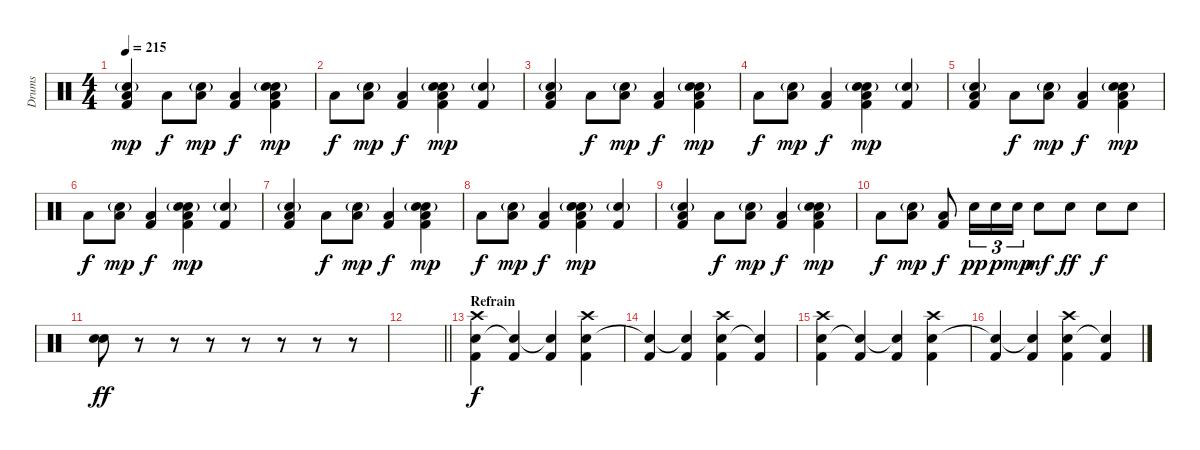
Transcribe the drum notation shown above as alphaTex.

\track ("Drums" "Drums") {instrument percussion}
\staff {score}
\articulation defaults
\ts (4 4)
\tempo 215
\clef neutral
\ks c
("Electric Snare (hit)"{g} "Low Floor Tom (hit)" "Kick (hit) 2").4{dy mp} "Low Floor Tom (hit)".8{dy f} ("Electric Snare (hit)"{g} "Low Floor Tom (hit)").8{dy mp} ("Low Floor Tom (hit)" "Kick (hit) 2").4{dy f} ("Electric Snare (hit)" "Kick (hit) 2" "Low Floor Tom (hit)" "Snare (hit) 2"{g}).4{dy mp} |
"Low Floor Tom (hit)".8{dy f} ("Electric Snare (hit)"{g} "Low Floor Tom (hit)").8{dy mp} ("Low Floor Tom (hit)" "Kick (hit) 2").4{dy f} ("Snare (hit) 2"{g} "Electric Snare (hit)" "Kick (hit) 2" "Low Floor Tom (hit)").4{dy mp} ("Electric Snare (hit)"{g} "Kick (hit) 2").4 |
("Electric Snare (hit)"{g} "Low Floor Tom (hit)" "Kick (hit) 2").4 "Low Floor Tom (hit)".8{dy f} ("Electric Snare (hit)"{g} "Low Floor Tom (hit)").8{dy mp} ("Low Floor Tom (hit)" "Kick (hit) 2").4{dy f} ("Electric Snare (hit)" "Kick (hit) 2" "Low Floor Tom (hit)" "Snare (hit) 2"{g}).4{dy mp} |
"Low Floor Tom (hit)".8{dy f} ("Electric Snare (hit)"{g} "Low Floor Tom (hit)").8{dy mp} ("Low Floor Tom (hit)" "Kick (hit) 2").4{dy f} ("Snare (hit) 2"{g} "Electric Snare (hit)" "Kick (hit) 2" "Low Floor Tom (hit)").4{dy mp} ("Electric Snare (hit)"{g} "Kick (hit) 2").4 |
("Electric Snare (hit)"{g} "Low Floor Tom (hit)" "Kick (hit) 2").4 "Low Floor Tom (hit)".8{dy f} ("Electric Snare (hit)"{g} "Low Floor Tom (hit)").8{dy mp} ("Low Floor Tom (hit)" "Kick (hit) 2").4{dy f} ("Electric Snare (hit)" "Kick (hit) 2" "Low Floor Tom (hit)" "Snare (hit) 2"{g}).4{dy mp} |
"Low Floor Tom (hit)".8{dy f} ("Electric Snare (hit)"{g} "Low Floor Tom (hit)").8{dy mp} ("Low Floor Tom (hit)" "Kick (hit) 2").4{dy f} ("Snare (hit) 2"{g} "Electric Snare (hit)" "Kick (hit) 2" "Low Floor Tom (hit)").4{dy mp} ("Electric Snare (hit)"{g} "Kick (hit) 2").4 |
("Electric Snare (hit)"{g} "Low Floor Tom (hit)" "Kick (hit) 2").4 "Low Floor Tom (hit)".8{dy f} ("Electric Snare (hit)"{g} "Low Floor Tom (hit)").8{dy mp} ("Low Floor Tom (hit)" "Kick (hit) 2").4{dy f} ("Electric Snare (hit)" "Kick (hit) 2" "Low Floor Tom (hit)" "Snare (hit) 2"{g}).4{dy mp} |
"Low Floor Tom (hit)".8{dy f} ("Electric Snare (hit)"{g} "Low Floor Tom (hit)").8{dy mp} ("Low Floor Tom (hit)" "Kick (hit) 2").4{dy f} ("Snare (hit) 2"{g} "Electric Snare (hit)" "Kick (hit) 2" "Low Floor Tom (hit)").4{dy mp} ("Electric Snare (hit)"{g} "Kick (hit) 2").4 |
("Electric Snare (hit)"{g} "Low Floor Tom (hit)" "Kick (hit) 2").4 "Low Floor Tom (hit)".8{dy f} ("Electric Snare (hit)"{g} "Low Floor Tom (hit)").8{dy mp} ("Low Floor Tom (hit)" "Kick (hit) 2").4{dy f} ("Electric Snare (hit)" "Kick (hit) 2" "Low Floor Tom (hit)" "Snare (hit) 2"{g}).4{dy mp} |
"Low Floor Tom (hit)".8{dy f} ("Electric Snare (hit)"{g} "Low Floor Tom (hit)").8{dy mp} ("Low Floor Tom (hit)" "Kick (hit) 2").8{dy f} "Snare (hit) 2".16{tu (3 2) dy pp} "Snare (hit) 2".16{tu (3 2) dy p} "Snare (hit) 2".16{tu (3 2) dy mp} "Snare (hit) 2".8{dy mf} "Snare (hit) 2".8{dy ff} "Snare (hit) 2".8{dy f} "Snare (hit) 2".8 |
("Electric Snare (hit)" "Snare (hit) 2").8{dy ff} r.8 r.8 r.8 r.8 r.8 r.8 r.8 |
\barLineRight lightlight
|
\section ("" "Refrain")
("Kick (hit) 2" "Snare (hit) 2" "Crash high (hit)").4{dy f} ("Kick (hit) 2" "Snare (hit)"{t}).4 ("Kick (hit) 2" "Snare (hit)"{t}).4 ("Kick (hit) 2" "Snare (hit) 2" "Crash high (hit)").4 |
("Kick (hit) 2" "Snare (hit)"{t}).4 ("Kick (hit) 2" "Snare (hit)"{t}).4 ("Kick (hit) 2" "Snare (hit) 2" "Crash high (hit)").4 ("Kick (hit) 2" "Snare (hit)"{t}).4 |
("Kick (hit) 2" "Snare (hit) 2" "Crash high (hit)").4 ("Kick (hit) 2" "Snare (hit)"{t}).4 ("Kick (hit) 2" "Snare (hit)"{t}).4 ("Kick (hit) 2" "Snare (hit) 2" "Crash high (hit)").4 |
("Kick (hit) 2" "Snare (hit)"{t}).4 ("Kick (hit) 2" "Snare (hit)"{t}).4 ("Kick (hit) 2" "Snare (hit) 2" "Crash high (hit)").4 ("Kick (hit) 2" "Snare (hit)"{t}).4
